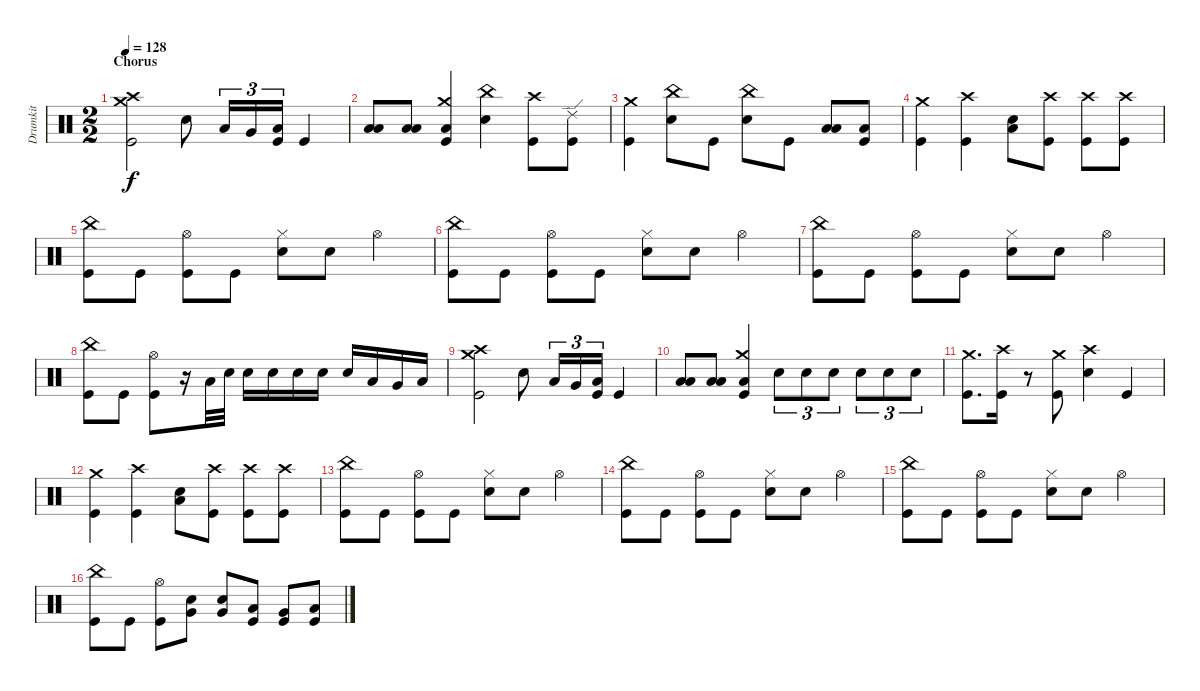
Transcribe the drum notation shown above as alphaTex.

\track ("Drumkit" "Drumkit") {instrument percussion}
\staff {score}
\articulation defaults
\ts (2 2)
\section ("" "Chorus")
\tempo 128
\clef neutral
\ks c
("Kick (hit)" "Crash medium (hit)" "Crash high (hit)").2{dy f} "Snare (hit) 2".8 "Low Tom (hit)".16{tu (3 2)} "Very Low Tom (hit)".16{tu (3 2)} ("Low Floor Tom (hit)" "Kick (hit)").16{tu (3 2)} "Kick (hit)".4 |
("Low Floor Tom (hit)" "Low Tom (hit)").8 ("Low Floor Tom (hit)" "Low Tom (hit)").8 ("Kick (hit)" "Low Floor Tom (hit)" "Crash medium (hit)").4 ("Snare (hit) 2" "China (hit)").4 ("Kick (hit)" "Crash high (hit)").8 ("Kick (hit)" "Ride (edge) 2").8 |
("Kick (hit)" "Crash medium (hit)").4 ("Snare (hit) 2" "China (hit)").8 "Kick (hit)".8 ("Snare (hit) 2" "China (hit)").8 "Kick (hit)".8 ("Low Tom (hit)" "Low Floor Tom (hit)").8 ("Kick (hit)" "Low Floor Tom (hit)").8 |
("Kick (hit)" "Crash medium (hit)").4 ("Kick (hit)" "Crash high (hit)").4 ("Snare (hit) 2" "Low Floor Tom (hit)").8 ("Kick (hit)" "Crash high (hit)").8 ("Kick (hit)" "Crash high (hit)").8 ("Kick (hit)" "Crash high (hit)").8 |
("Kick (hit)" "China (hit)").8 "Kick (hit)".8 ("Hi-Hat (open)" "Kick (hit)").8 "Kick (hit)".8 ("Snare (hit) 2" "Hi-Hat (closed)").8 "Snare (hit) 2".8 "Hi-Hat (open)".4 |
("Kick (hit)" "China (hit)").8 "Kick (hit)".8 ("Hi-Hat (open)" "Kick (hit)").8 "Kick (hit)".8 ("Snare (hit) 2" "Hi-Hat (closed)").8 "Snare (hit) 2".8 "Hi-Hat (open)".4 |
("Kick (hit)" "China (hit)").8 "Kick (hit)".8 ("Hi-Hat (open)" "Kick (hit)").8 "Kick (hit)".8 ("Snare (hit) 2" "Hi-Hat (closed)").8 "Snare (hit) 2".8 "Hi-Hat (open)".4 |
("Kick (hit)" "China (hit)").8 "Kick (hit)".8 ("Hi-Hat (open)" "Kick (hit)").8 r.16 "Low Tom (hit)".32 "Snare (hit) 2".32 "Snare (hit) 2".16 "Snare (hit) 2".16 "Snare (hit) 2".16 "Snare (hit) 2".16 "Snare (hit) 2".16 "Low Tom (hit)".16 "Very Low Tom (hit)".16 "Low Floor Tom (hit)".16 |
("Kick (hit)" "Crash medium (hit)" "Crash high (hit)").2 "Snare (hit) 2".8 "Low Tom (hit)".16{tu (3 2)} "Very Low Tom (hit)".16{tu (3 2)} ("Low Floor Tom (hit)" "Kick (hit)").16{tu (3 2)} "Kick (hit)".4 |
("Low Floor Tom (hit)" "Low Tom (hit)").8 ("Low Floor Tom (hit)" "Low Tom (hit)").8 ("Kick (hit)" "Low Floor Tom (hit)" "Crash medium (hit)").4 "Snare (hit) 2".8{tu (3 2)} "Snare (hit) 2".8{tu (3 2)} "Snare (hit) 2".8{tu (3 2)} "Snare (hit) 2".8{tu (3 2)} "Snare (hit) 2".8{tu (3 2)} "Snare (hit) 2".8{tu (3 2)} |
("Kick (hit)" "Crash medium (hit)").8{d} ("Kick (hit)" "Crash high (hit)").16 r.8 ("Kick (hit)" "Crash medium (hit)").8 ("Snare (hit) 2" "Crash high (hit)").4 "Kick (hit)".4 |
("Kick (hit)" "Crash medium (hit)").4 ("Kick (hit)" "Crash high (hit)").4 ("Snare (hit) 2" "Low Floor Tom (hit)").8 ("Kick (hit)" "Crash high (hit)").8 ("Kick (hit)" "Crash high (hit)").8 ("Kick (hit)" "Crash high (hit)").8 |
("Kick (hit)" "China (hit)").8 "Kick (hit)".8 ("Hi-Hat (open)" "Kick (hit)").8 "Kick (hit)".8 ("Snare (hit) 2" "Hi-Hat (closed)").8 "Snare (hit) 2".8 "Hi-Hat (open)".4 |
("Kick (hit)" "China (hit)").8 "Kick (hit)".8 ("Hi-Hat (open)" "Kick (hit)").8 "Kick (hit)".8 ("Snare (hit) 2" "Hi-Hat (closed)").8 "Snare (hit) 2".8 "Hi-Hat (open)".4 |
("Kick (hit)" "China (hit)").8 "Kick (hit)".8 ("Hi-Hat (open)" "Kick (hit)").8 "Kick (hit)".8 ("Snare (hit) 2" "Hi-Hat (closed)").8 "Snare (hit) 2".8 "Hi-Hat (open)".4 |
("Kick (hit)" "China (hit)").8 "Kick (hit)".8 ("Hi-Hat (open)" "Kick (hit)").8 ("Snare (hit) 2" "Very Low Tom (hit)").8 ("Snare (hit) 2" "Very Low Tom (hit)").8 ("Low Tom (hit)" "Kick (hit)").8 ("Kick (hit)" "Very Low Tom (hit)").8 ("Kick (hit)" "Low Floor Tom (hit)").8
